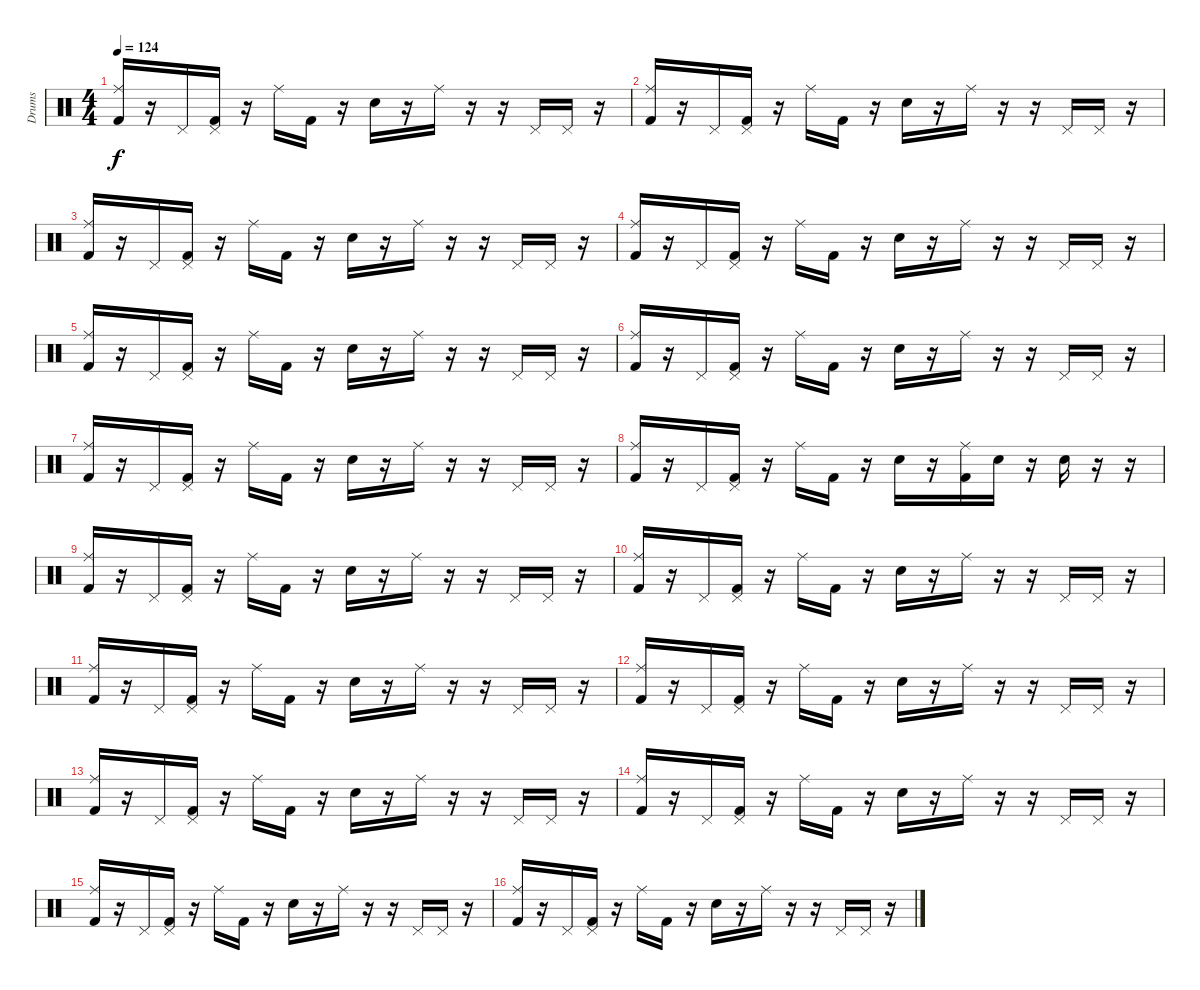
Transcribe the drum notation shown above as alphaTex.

\track ("Drums" "Drums") {instrument percussion}
\staff {score}
\articulation defaults
\ts (4 4)
\tempo 124
\clef neutral
\ks c
("Ride (middle)" "Kick (hit) 2").16{dy f} r.16 "Pedal Hi-Hat (hit)".16 ("Pedal Hi-Hat (hit)" "Kick (hit) 2").16 r.16 "Ride (middle)".16 "Kick (hit) 2".16 r.16 "Electric Snare (hit)".16 r.16 "Ride (middle)".16 r.16 r.16 "Pedal Hi-Hat (hit)".16 "Pedal Hi-Hat (hit)".16 r.16 |
("Ride (middle)" "Kick (hit) 2").16 r.16 "Pedal Hi-Hat (hit)".16 ("Pedal Hi-Hat (hit)" "Kick (hit) 2").16 r.16 "Ride (middle)".16 "Kick (hit) 2".16 r.16 "Electric Snare (hit)".16 r.16 "Ride (middle)".16 r.16 r.16 "Pedal Hi-Hat (hit)".16 "Pedal Hi-Hat (hit)".16 r.16 |
("Ride (middle)" "Kick (hit) 2").16 r.16 "Pedal Hi-Hat (hit)".16 ("Pedal Hi-Hat (hit)" "Kick (hit) 2").16 r.16 "Ride (middle)".16 "Kick (hit) 2".16 r.16 "Electric Snare (hit)".16 r.16 "Ride (middle)".16 r.16 r.16 "Pedal Hi-Hat (hit)".16 "Pedal Hi-Hat (hit)".16 r.16 |
("Ride (middle)" "Kick (hit) 2").16 r.16 "Pedal Hi-Hat (hit)".16 ("Pedal Hi-Hat (hit)" "Kick (hit) 2").16 r.16 "Ride (middle)".16 "Kick (hit) 2".16 r.16 "Electric Snare (hit)".16 r.16 "Ride (middle)".16 r.16 r.16 "Pedal Hi-Hat (hit)".16 "Pedal Hi-Hat (hit)".16 r.16 |
("Ride (middle)" "Kick (hit) 2").16 r.16 "Pedal Hi-Hat (hit)".16 ("Pedal Hi-Hat (hit)" "Kick (hit) 2").16 r.16 "Ride (middle)".16 "Kick (hit) 2".16 r.16 "Electric Snare (hit)".16 r.16 "Ride (middle)".16 r.16 r.16 "Pedal Hi-Hat (hit)".16 "Pedal Hi-Hat (hit)".16 r.16 |
("Ride (middle)" "Kick (hit) 2").16 r.16 "Pedal Hi-Hat (hit)".16 ("Pedal Hi-Hat (hit)" "Kick (hit) 2").16 r.16 "Ride (middle)".16 "Kick (hit) 2".16 r.16 "Electric Snare (hit)".16 r.16 "Ride (middle)".16 r.16 r.16 "Pedal Hi-Hat (hit)".16 "Pedal Hi-Hat (hit)".16 r.16 |
("Ride (middle)" "Kick (hit) 2").16 r.16 "Pedal Hi-Hat (hit)".16 ("Pedal Hi-Hat (hit)" "Kick (hit) 2").16 r.16 "Ride (middle)".16 "Kick (hit) 2".16 r.16 "Electric Snare (hit)".16 r.16 "Ride (middle)".16 r.16 r.16 "Pedal Hi-Hat (hit)".16 "Pedal Hi-Hat (hit)".16 r.16 |
("Ride (middle)" "Kick (hit) 2").16 r.16 "Pedal Hi-Hat (hit)".16 ("Pedal Hi-Hat (hit)" "Kick (hit) 2").16 r.16 "Ride (middle)".16 "Kick (hit) 2".16 r.16 "Electric Snare (hit)".16 r.16 ("Ride (middle)" "Kick (hit) 2").16 "Electric Snare (hit)".16 r.16 "Electric Snare (hit)".16 r.16 r.16 |
("Ride (middle)" "Kick (hit) 2").16 r.16 "Pedal Hi-Hat (hit)".16 ("Pedal Hi-Hat (hit)" "Kick (hit) 2").16 r.16 "Ride (middle)".16 "Kick (hit) 2".16 r.16 "Electric Snare (hit)".16 r.16 "Ride (middle)".16 r.16 r.16 "Pedal Hi-Hat (hit)".16 "Pedal Hi-Hat (hit)".16 r.16 |
("Ride (middle)" "Kick (hit) 2").16 r.16 "Pedal Hi-Hat (hit)".16 ("Pedal Hi-Hat (hit)" "Kick (hit) 2").16 r.16 "Ride (middle)".16 "Kick (hit) 2".16 r.16 "Electric Snare (hit)".16 r.16 "Ride (middle)".16 r.16 r.16 "Pedal Hi-Hat (hit)".16 "Pedal Hi-Hat (hit)".16 r.16 |
("Ride (middle)" "Kick (hit) 2").16 r.16 "Pedal Hi-Hat (hit)".16 ("Pedal Hi-Hat (hit)" "Kick (hit) 2").16 r.16 "Ride (middle)".16 "Kick (hit) 2".16 r.16 "Electric Snare (hit)".16 r.16 "Ride (middle)".16 r.16 r.16 "Pedal Hi-Hat (hit)".16 "Pedal Hi-Hat (hit)".16 r.16 |
("Ride (middle)" "Kick (hit) 2").16 r.16 "Pedal Hi-Hat (hit)".16 ("Pedal Hi-Hat (hit)" "Kick (hit) 2").16 r.16 "Ride (middle)".16 "Kick (hit) 2".16 r.16 "Electric Snare (hit)".16 r.16 "Ride (middle)".16 r.16 r.16 "Pedal Hi-Hat (hit)".16 "Pedal Hi-Hat (hit)".16 r.16 |
("Ride (middle)" "Kick (hit) 2").16 r.16 "Pedal Hi-Hat (hit)".16 ("Pedal Hi-Hat (hit)" "Kick (hit) 2").16 r.16 "Ride (middle)".16 "Kick (hit) 2".16 r.16 "Electric Snare (hit)".16 r.16 "Ride (middle)".16 r.16 r.16 "Pedal Hi-Hat (hit)".16 "Pedal Hi-Hat (hit)".16 r.16 |
("Ride (middle)" "Kick (hit) 2").16 r.16 "Pedal Hi-Hat (hit)".16 ("Pedal Hi-Hat (hit)" "Kick (hit) 2").16 r.16 "Ride (middle)".16 "Kick (hit) 2".16 r.16 "Electric Snare (hit)".16 r.16 "Ride (middle)".16 r.16 r.16 "Pedal Hi-Hat (hit)".16 "Pedal Hi-Hat (hit)".16 r.16 |
("Ride (middle)" "Kick (hit) 2").16 r.16 "Pedal Hi-Hat (hit)".16 ("Pedal Hi-Hat (hit)" "Kick (hit) 2").16 r.16 "Ride (middle)".16 "Kick (hit) 2".16 r.16 "Electric Snare (hit)".16 r.16 "Ride (middle)".16 r.16 r.16 "Pedal Hi-Hat (hit)".16 "Pedal Hi-Hat (hit)".16 r.16 |
("Ride (middle)" "Kick (hit) 2").16 r.16 "Pedal Hi-Hat (hit)".16 ("Pedal Hi-Hat (hit)" "Kick (hit) 2").16 r.16 "Ride (middle)".16 "Kick (hit) 2".16 r.16 "Electric Snare (hit)".16 r.16 "Ride (middle)".16 r.16 r.16 "Pedal Hi-Hat (hit)".16 "Pedal Hi-Hat (hit)".16 r.16
